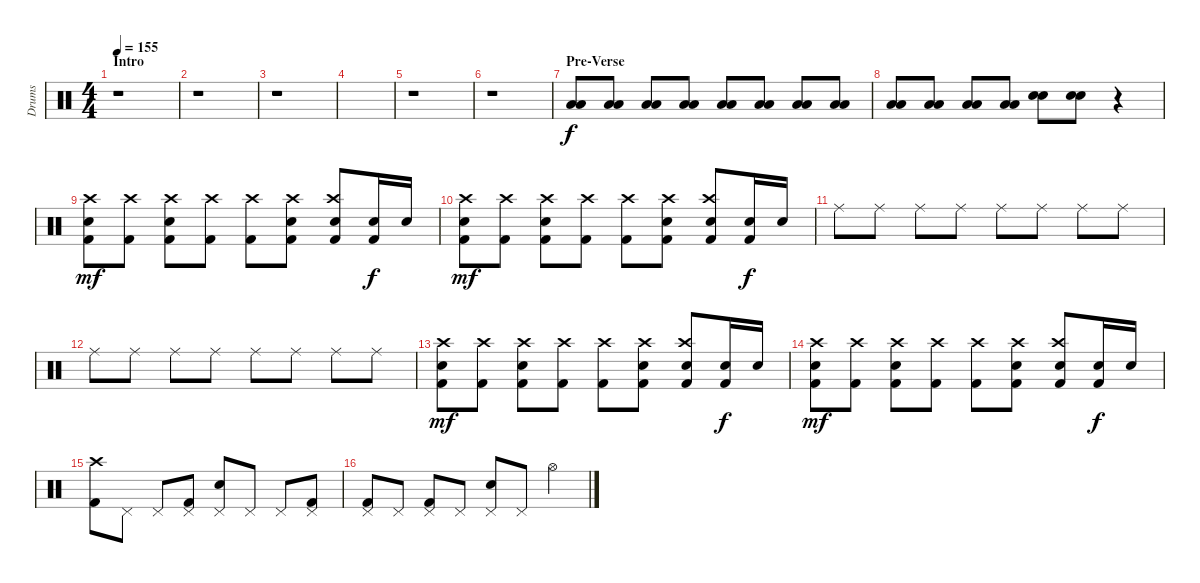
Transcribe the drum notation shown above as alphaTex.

\track ("Drums" "Drums") {instrument percussion}
\staff {score}
\articulation defaults
\ts (4 4)
\section ("" "Intro")
\tempo 155
\clef neutral
\ks c
r.1{dy f} |
r.1 |
r.1 |
|
r.1 |
r.1 |
\section ("" "Pre-Verse")
("Low Tom (hit)" "Low Floor Tom (hit)").8 ("Low Tom (hit)" "Low Floor Tom (hit)").8 ("Low Tom (hit)" "Low Floor Tom (hit)").8 ("Low Tom (hit)" "Low Floor Tom (hit)").8 ("Low Tom (hit)" "Low Floor Tom (hit)").8 ("Low Tom (hit)" "Low Floor Tom (hit)").8 ("Low Tom (hit)" "Low Floor Tom (hit)").8 ("Low Tom (hit)" "Low Floor Tom (hit)").8 |
("Low Tom (hit)" "Low Floor Tom (hit)").8 ("Low Tom (hit)" "Low Floor Tom (hit)").8 ("Low Tom (hit)" "Low Floor Tom (hit)").8 ("Low Tom (hit)" "Low Floor Tom (hit)").8 ("Snare (hit) 2" "Snare (hit) 2").8 ("Snare (hit) 2" "Snare (hit) 2").8 r.4 |
("Crash high (hit)" "Snare (hit) 2" "Kick (hit) 2").8{dy mf} ("Crash high (hit)" "Kick (hit) 2").8 ("Crash high (hit)" "Snare (hit) 2" "Kick (hit) 2").8 ("Crash high (hit)" "Kick (hit) 2").8 ("Crash high (hit)" "Kick (hit) 2").8 ("Crash high (hit)" "Snare (hit) 2" "Kick (hit) 2").8 ("Crash high (hit)" "Snare (hit) 2" "Kick (hit) 2").8 ("Snare (hit) 2" "Kick (hit) 2").16{dy f} "Snare (hit) 2".16 |
("Crash high (hit)" "Snare (hit) 2" "Kick (hit) 2").8{dy mf} ("Crash high (hit)" "Kick (hit) 2").8 ("Crash high (hit)" "Snare (hit) 2" "Kick (hit) 2").8 ("Crash high (hit)" "Kick (hit) 2").8 ("Crash high (hit)" "Kick (hit) 2").8 ("Crash high (hit)" "Snare (hit) 2" "Kick (hit) 2").8 ("Crash high (hit)" "Snare (hit) 2" "Kick (hit) 2").8 ("Snare (hit) 2" "Kick (hit) 2").16{dy f} "Snare (hit) 2".16 |
"Ride (middle)".8 "Ride (middle)".8 "Ride (middle)".8 "Ride (middle)".8 "Ride (middle)".8 "Ride (middle)".8 "Ride (middle)".8 "Ride (middle)".8 |
"Ride (middle)".8 "Ride (middle)".8 "Ride (middle)".8 "Ride (middle)".8 "Ride (middle)".8 "Ride (middle)".8 "Ride (middle)".8 "Ride (middle)".8 |
("Crash high (hit)" "Snare (hit) 2" "Kick (hit) 2").8{dy mf} ("Crash high (hit)" "Kick (hit) 2").8 ("Crash high (hit)" "Snare (hit) 2" "Kick (hit) 2").8 ("Crash high (hit)" "Kick (hit) 2").8 ("Crash high (hit)" "Kick (hit) 2").8 ("Crash high (hit)" "Snare (hit) 2" "Kick (hit) 2").8 ("Crash high (hit)" "Snare (hit) 2" "Kick (hit) 2").8 ("Snare (hit) 2" "Kick (hit) 2").16{dy f} "Snare (hit) 2".16 |
("Crash high (hit)" "Snare (hit) 2" "Kick (hit) 2").8{dy mf} ("Crash high (hit)" "Kick (hit) 2").8 ("Crash high (hit)" "Snare (hit) 2" "Kick (hit) 2").8 ("Crash high (hit)" "Kick (hit) 2").8 ("Crash high (hit)" "Kick (hit) 2").8 ("Crash high (hit)" "Snare (hit) 2" "Kick (hit) 2").8 ("Crash high (hit)" "Snare (hit) 2" "Kick (hit) 2").8 ("Snare (hit) 2" "Kick (hit) 2").16{dy f} "Snare (hit) 2".16 |
("Crash high (hit)" "Kick (hit) 2").8 "Pedal Hi-Hat (hit)".8 "Pedal Hi-Hat (hit)".8 ("Pedal Hi-Hat (hit)" "Kick (hit) 2").8 ("Pedal Hi-Hat (hit)" "Snare (hit) 2").8 "Pedal Hi-Hat (hit)".8 "Pedal Hi-Hat (hit)".8 ("Pedal Hi-Hat (hit)" "Kick (hit) 2").8 |
("Pedal Hi-Hat (hit)" "Kick (hit) 2").8 "Pedal Hi-Hat (hit)".8 ("Pedal Hi-Hat (hit)" "Kick (hit) 2").8 "Pedal Hi-Hat (hit)".8 ("Pedal Hi-Hat (hit)" "Snare (hit) 2").8 "Pedal Hi-Hat (hit)".8 "Hi-Hat (open)".4
